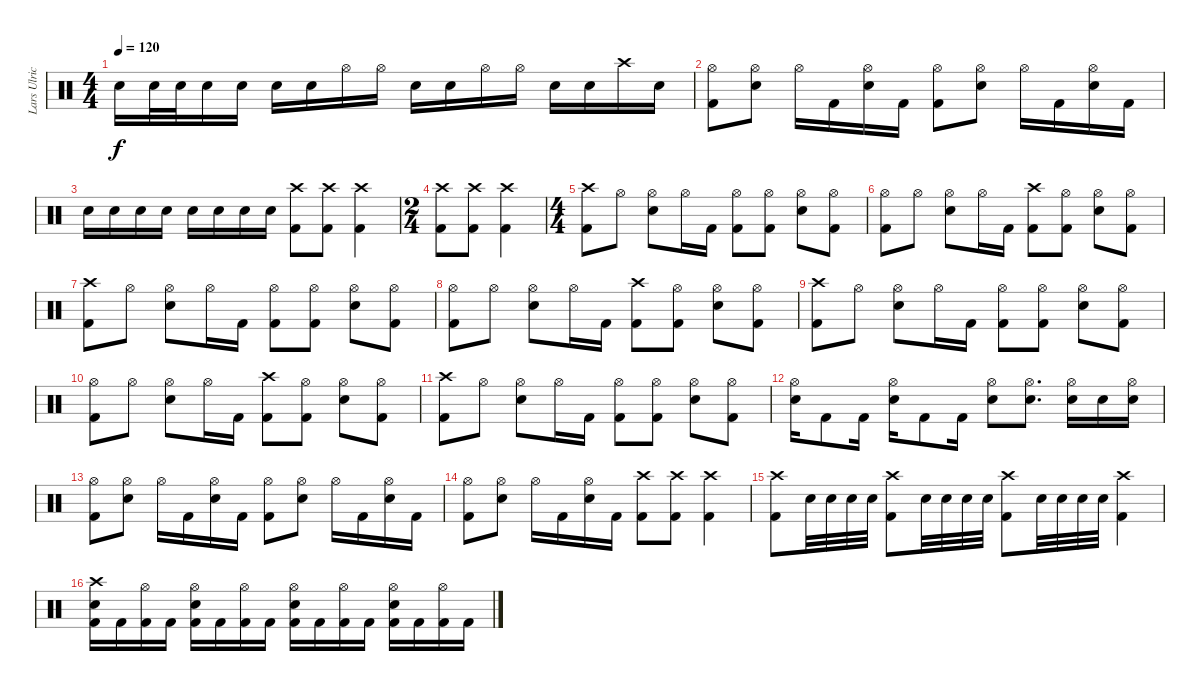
\track ("Lars Ulrich" "Lars Ulric") {instrument percussion}
\staff {score}
\articulation defaults
\ts (4 4)
\tempo 120
\clef neutral
\ks c "Electric Snare (hit)".16{dy f} "Electric Snare (hit)".32 "Electric Snare (hit)".32 "Electric Snare (hit)".16 "Electric Snare (hit)".16 "Electric Snare (hit)".16 "Electric Snare (hit)".16 "Hi-Hat (open)".16 "Hi-Hat (open)".16 "Electric Snare (hit)".16 "Electric Snare (hit)".16 "Hi-Hat (open)".16 "Hi-Hat (open)".16 "Electric Snare (hit)".16 "Electric Snare (hit)".16 "Crash high (hit)".16 "Electric Snare (hit)".16
|
("Hi-Hat (open)" "Kick (hit) 2").8 ("Hi-Hat (open)" "Electric Snare (hit)").8 "Hi-Hat (open)".16 "Kick (hit) 2".16 ("Hi-Hat (open)" "Electric Snare (hit)").16 "Kick (hit) 2".16 ("Hi-Hat (open)" "Kick (hit) 2").8 ("Hi-Hat (open)" "Electric Snare (hit)").8 "Hi-Hat (open)".16 "Kick (hit) 2".16 ("Hi-Hat (open)" "Electric Snare (hit)").16 "Kick (hit) 2".16 |
"Electric Snare (hit)".16 "Electric Snare (hit)".16 "Electric Snare (hit)".16 "Electric Snare (hit)".16 "Electric Snare (hit)".16 "Electric Snare (hit)".16 "Electric Snare (hit)".16 "Electric Snare (hit)".16 ("Kick (hit) 2" "Crash high (hit)").8 ("Kick (hit) 2" "Crash high (hit)").8 ("Kick (hit) 2" "Crash high (hit)").4 |
\ts (2 4)
("Kick (hit) 2" "Crash high (hit)").8 ("Kick (hit) 2" "Crash high (hit)").8 ("Kick (hit) 2" "Crash high (hit)").4 |
\ts (4 4)
("Crash high (hit)" "Kick (hit) 2").8 "Hi-Hat (open)".8 ("Hi-Hat (open)" "Electric Snare (hit)").8 "Hi-Hat (open)".16 "Kick (hit) 2".16 ("Hi-Hat (open)" "Kick (hit) 2").8 ("Hi-Hat (open)" "Kick (hit) 2").8 ("Hi-Hat (open)" "Electric Snare (hit)").8 ("Hi-Hat (open)" "Kick (hit) 2").8 |
("Hi-Hat (open)" "Kick (hit) 2").8 "Hi-Hat (open)".8 ("Hi-Hat (open)" "Electric Snare (hit)").8 "Hi-Hat (open)".16 "Kick (hit) 2".16 ("Crash high (hit)" "Kick (hit) 2").8 ("Hi-Hat (open)" "Kick (hit) 2").8 ("Hi-Hat (open)" "Electric Snare (hit)").8 ("Hi-Hat (open)" "Kick (hit) 2").8 |
("Crash high (hit)" "Kick (hit) 2").8 "Hi-Hat (open)".8 ("Hi-Hat (open)" "Electric Snare (hit)").8 "Hi-Hat (open)".16 "Kick (hit) 2".16 ("Hi-Hat (open)" "Kick (hit) 2").8 ("Hi-Hat (open)" "Kick (hit) 2").8 ("Hi-Hat (open)" "Electric Snare (hit)").8 ("Hi-Hat (open)" "Kick (hit) 2").8 |
("Hi-Hat (open)" "Kick (hit) 2").8 "Hi-Hat (open)".8 ("Hi-Hat (open)" "Electric Snare (hit)").8 "Hi-Hat (open)".16 "Kick (hit) 2".16 ("Crash high (hit)" "Kick (hit) 2").8 ("Hi-Hat (open)" "Kick (hit) 2").8 ("Hi-Hat (open)" "Electric Snare (hit)").8 ("Hi-Hat (open)" "Kick (hit) 2").8 |
("Crash high (hit)" "Kick (hit) 2").8 "Hi-Hat (open)".8 ("Hi-Hat (open)" "Electric Snare (hit)").8 "Hi-Hat (open)".16 "Kick (hit) 2".16 ("Hi-Hat (open)" "Kick (hit) 2").8 ("Hi-Hat (open)" "Kick (hit) 2").8 ("Hi-Hat (open)" "Electric Snare (hit)").8 ("Hi-Hat (open)" "Kick (hit) 2").8 |
("Hi-Hat (open)" "Kick (hit) 2").8 "Hi-Hat (open)".8 ("Hi-Hat (open)" "Electric Snare (hit)").8 "Hi-Hat (open)".16 "Kick (hit) 2".16 ("Crash high (hit)" "Kick (hit) 2").8 ("Hi-Hat (open)" "Kick (hit) 2").8 ("Hi-Hat (open)" "Electric Snare (hit)").8 ("Hi-Hat (open)" "Kick (hit) 2").8 |
("Crash high (hit)" "Kick (hit) 2").8 "Hi-Hat (open)".8 ("Hi-Hat (open)" "Electric Snare (hit)").8 "Hi-Hat (open)".16 "Kick (hit) 2".16 ("Hi-Hat (open)" "Kick (hit) 2").8 ("Hi-Hat (open)" "Kick (hit) 2").8 ("Hi-Hat (open)" "Electric Snare (hit)").8 ("Hi-Hat (open)" "Kick (hit) 2").8 |
("Hi-Hat (open)" "Electric Snare (hit)").16 "Kick (hit) 2".8 "Kick (hit) 2".16 ("Hi-Hat (open)" "Electric Snare (hit)").16 "Kick (hit) 2".8 "Kick (hit) 2".16 ("Electric Snare (hit)" "Hi-Hat (open)").8 ("Electric Snare (hit)" "Hi-Hat (open)").8{d} ("Electric Snare (hit)" "Hi-Hat (open)").16 "Electric Snare (hit)".16 ("Electric Snare (hit)" "Hi-Hat (open)").16 |
("Hi-Hat (open)" "Kick (hit) 2").8 ("Hi-Hat (open)" "Electric Snare (hit)").8 "Hi-Hat (open)".16 "Kick (hit) 2".16 ("Hi-Hat (open)" "Electric Snare (hit)").16 "Kick (hit) 2".16 ("Hi-Hat (open)" "Kick (hit) 2").8 ("Hi-Hat (open)" "Electric Snare (hit)").8 "Hi-Hat (open)".16 "Kick (hit) 2".16 ("Hi-Hat (open)" "Electric Snare (hit)").16 "Kick (hit) 2".16 |
("Hi-Hat (open)" "Kick (hit) 2").8 ("Hi-Hat (open)" "Electric Snare (hit)").8 "Hi-Hat (open)".16 "Kick (hit) 2".16 ("Hi-Hat (open)" "Electric Snare (hit)").16 "Kick (hit) 2".16 ("Kick (hit) 2" "Crash high (hit)").8 ("Kick (hit) 2" "Crash high (hit)").8 ("Kick (hit) 2" "Crash high (hit)").4 |
("Kick (hit) 2" "Crash high (hit)").8 "Electric Snare (hit)".32 "Electric Snare (hit)".32 "Electric Snare (hit)".32 "Electric Snare (hit)".32 ("Kick (hit) 2" "Crash high (hit)").8 "Electric Snare (hit)".32 "Electric Snare (hit)".32 "Electric Snare (hit)".32 "Electric Snare (hit)".32 ("Kick (hit) 2" "Crash high (hit)").8 "Electric Snare (hit)".32 "Electric Snare (hit)".32 "Electric Snare (hit)".32 "Electric Snare (hit)".32 ("Kick (hit) 2" "Crash high (hit)").4 |
("Crash high (hit)" "Electric Snare (hit)" "Kick (hit) 2").16 "Kick (hit) 2".16 ("Hi-Hat (open)" "Kick (hit) 2").16 "Kick (hit) 2".16 ("Hi-Hat (open)" "Electric Snare (hit)" "Kick (hit) 2").16 "Kick (hit) 2".16 ("Hi-Hat (open)" "Kick (hit) 2").16 "Kick (hit) 2".16 ("Hi-Hat (open)" "Electric Snare (hit)" "Kick (hit) 2").16 "Kick (hit) 2".16 ("Hi-Hat (open)" "Kick (hit) 2").16 "Kick (hit) 2".16 ("Hi-Hat (open)" "Electric Snare (hit)" "Kick (hit) 2").16 "Kick (hit) 2".16 ("Hi-Hat (open)" "Kick (hit) 2").16 "Kick (hit) 2".16
